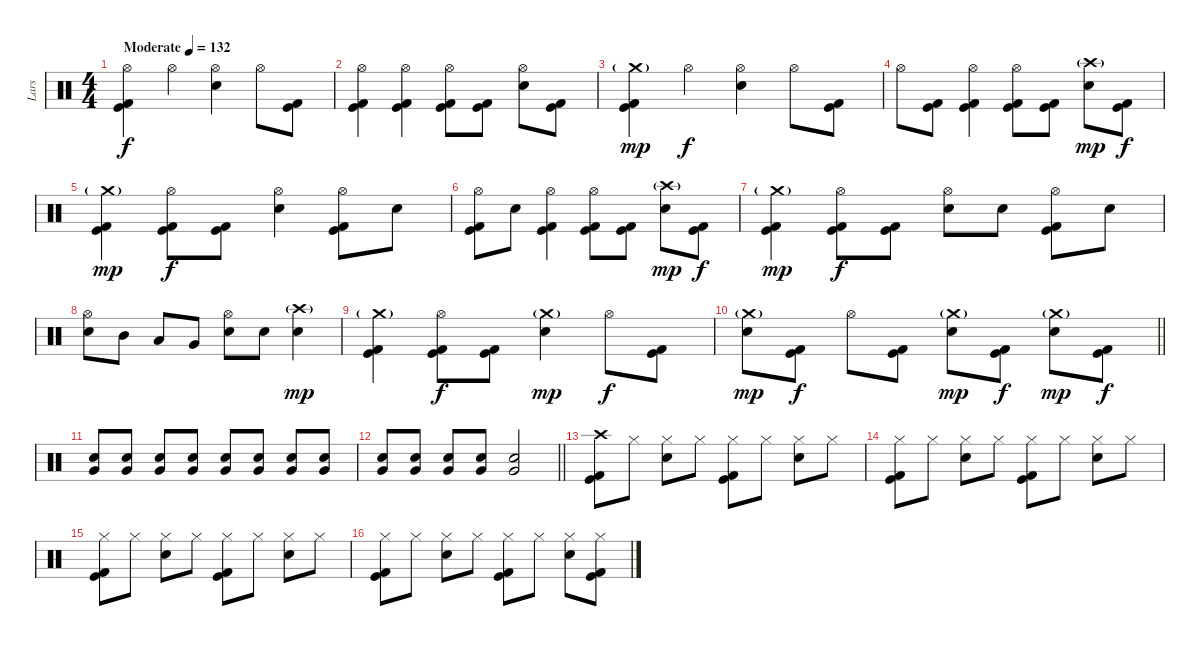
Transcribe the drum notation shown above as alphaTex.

\track ("Lars" "Lars") {instrument percussion}
\staff {score}
\articulation defaults
\ts (4 4)
\tempo (132 "Moderate")
\clef neutral
\ks c
("Hi-Hat (open)" "Kick (hit)" "Kick (hit) 2").4{dy f} "Hi-Hat (open)".4 ("Hi-Hat (open)" "Electric Snare (hit)").4 "Hi-Hat (open)".8 ("Kick (hit)" "Kick (hit) 2").8 |
("Hi-Hat (open)" "Kick (hit)" "Kick (hit) 2").4 ("Hi-Hat (open)" "Kick (hit)" "Kick (hit) 2").4 ("Hi-Hat (open)" "Kick (hit)" "Kick (hit) 2").8 ("Kick (hit)" "Kick (hit) 2").8 ("Hi-Hat (open)" "Electric Snare (hit)").8 ("Kick (hit)" "Kick (hit) 2").8 |
("Crash medium (hit)"{g} "Kick (hit)" "Kick (hit) 2").4{dy mp} "Hi-Hat (open)".4{dy f} ("Hi-Hat (open)" "Electric Snare (hit)").4 "Hi-Hat (open)".8 ("Kick (hit)" "Kick (hit) 2").8 |
"Hi-Hat (open)".8 ("Kick (hit)" "Kick (hit) 2").8 ("Hi-Hat (open)" "Kick (hit)" "Kick (hit) 2").4 ("Hi-Hat (open)" "Kick (hit)" "Kick (hit) 2").8 ("Kick (hit)" "Kick (hit) 2").8 ("Crash high (hit)"{g} "Electric Snare (hit)").8{dy mp} ("Kick (hit)" "Kick (hit) 2").8{dy f} |
("Crash medium (hit)"{g} "Kick (hit)" "Kick (hit) 2").4{dy mp} ("Hi-Hat (open)" "Kick (hit)" "Kick (hit) 2").8{dy f} ("Kick (hit)" "Kick (hit) 2").8 ("Hi-Hat (open)" "Electric Snare (hit)").4 ("Hi-Hat (open)" "Kick (hit)" "Kick (hit) 2").8 "Electric Snare (hit)".8 |
("Hi-Hat (open)" "Kick (hit)" "Kick (hit) 2").8 "Electric Snare (hit)".8 ("Hi-Hat (open)" "Kick (hit)" "Kick (hit) 2").4 ("Hi-Hat (open)" "Kick (hit)" "Kick (hit) 2").8 ("Kick (hit)" "Kick (hit) 2").8 ("Crash high (hit)"{g} "Electric Snare (hit)").8{dy mp} ("Kick (hit)" "Kick (hit) 2").8{dy f} |
("Crash medium (hit)"{g} "Kick (hit)" "Kick (hit) 2").4{dy mp} ("Hi-Hat (open)" "Kick (hit)" "Kick (hit) 2").8{dy f} ("Kick (hit)" "Kick (hit) 2").8 ("Hi-Hat (open)" "Electric Snare (hit)").8 "Electric Snare (hit)".8 ("Hi-Hat (open)" "Kick (hit)" "Kick (hit) 2").8 "Electric Snare (hit)".8 |
("Hi-Hat (open)" "Electric Snare (hit)").8 "Mid Tom (hit)".8 "Low Tom (hit)".8 "Very Low Tom (hit)".8 ("Hi-Hat (open)" "Electric Snare (hit)").8 "Electric Snare (hit)".8 ("Crash high (hit)"{g} "Electric Snare (hit)").4{dy mp} |
("Crash medium (hit)"{g} "Kick (hit)" "Kick (hit) 2").4 ("Hi-Hat (open)" "Kick (hit)" "Kick (hit) 2").8{dy f} ("Kick (hit)" "Kick (hit) 2").8 ("Crash medium (hit)"{g} "Electric Snare (hit)").4{dy mp} "Hi-Hat (open)".8{dy f} ("Kick (hit)" "Kick (hit) 2").8 |
\barLineRight lightlight
("Crash medium (hit)"{g} "Electric Snare (hit)").8{dy mp} ("Kick (hit)" "Kick (hit) 2").8{dy f} "Hi-Hat (open)".8 ("Kick (hit)" "Kick (hit) 2").8 ("Crash medium (hit)"{g} "Electric Snare (hit)").8{dy mp} ("Kick (hit)" "Kick (hit) 2").8{dy f} ("Crash medium (hit)"{g} "Electric Snare (hit)").8{dy mp} ("Kick (hit)" "Kick (hit) 2").8{dy f} |
("Electric Snare (hit)" "Very Low Tom (hit)").8{volume 8} ("Electric Snare (hit)" "Very Low Tom (hit)").8{volume 16} ("Electric Snare (hit)" "Very Low Tom (hit)").8 ("Electric Snare (hit)" "Very Low Tom (hit)").8 ("Electric Snare (hit)" "Very Low Tom (hit)").8 ("Electric Snare (hit)" "Very Low Tom (hit)").8 ("Electric Snare (hit)" "Very Low Tom (hit)").8 ("Electric Snare (hit)" "Very Low Tom (hit)").8 |
\barLineRight lightlight
("Electric Snare (hit)" "Very Low Tom (hit)").8 ("Electric Snare (hit)" "Very Low Tom (hit)").8 ("Electric Snare (hit)" "Very Low Tom (hit)").8 ("Electric Snare (hit)" "Very Low Tom (hit)").8 ("Electric Snare (hit)" "Very Low Tom (hit)").2 |
\section ("" "")
("Crash high (hit)" "Kick (hit)" "Kick (hit) 2").8 "Hi-Hat (closed)".8 ("Hi-Hat (closed)" "Electric Snare (hit)").8 "Hi-Hat (closed)".8 ("Hi-Hat (closed)" "Kick (hit)" "Kick (hit) 2").8 "Hi-Hat (closed)".8 ("Hi-Hat (closed)" "Electric Snare (hit)").8 "Hi-Hat (closed)".8 |
("Hi-Hat (closed)" "Kick (hit)" "Kick (hit) 2").8 "Hi-Hat (closed)".8 ("Hi-Hat (closed)" "Electric Snare (hit)").8 "Hi-Hat (closed)".8 ("Hi-Hat (closed)" "Kick (hit)" "Kick (hit) 2").8 "Hi-Hat (closed)".8 ("Hi-Hat (closed)" "Electric Snare (hit)").8 "Hi-Hat (closed)".8 |
("Hi-Hat (closed)" "Kick (hit)" "Kick (hit) 2").8 "Hi-Hat (closed)".8 ("Hi-Hat (closed)" "Electric Snare (hit)").8 "Hi-Hat (closed)".8 ("Hi-Hat (closed)" "Kick (hit)" "Kick (hit) 2").8 "Hi-Hat (closed)".8 ("Hi-Hat (closed)" "Electric Snare (hit)").8 "Hi-Hat (closed)".8 |
("Hi-Hat (closed)" "Kick (hit)" "Kick (hit) 2").8 "Hi-Hat (closed)".8 ("Hi-Hat (closed)" "Electric Snare (hit)").8 "Hi-Hat (closed)".8 ("Hi-Hat (closed)" "Kick (hit)" "Kick (hit) 2").8 "Hi-Hat (closed)".8 ("Hi-Hat (closed)" "Electric Snare (hit)").8 ("Hi-Hat (closed)" "Kick (hit)" "Kick (hit) 2").8
